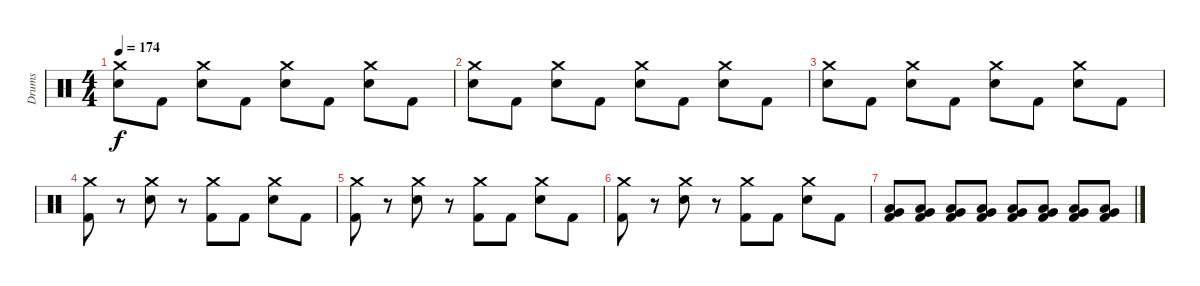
\track ("Drums" "Drums") {instrument percussion}
\staff {score}
\articulation defaults
\ts (4 4)
\tempo 174
\clef neutral
\ks c
("Crash medium (hit)" "Electric Snare (hit)").8{dy f} "Kick (hit) 2".8 ("Crash medium (hit)" "Electric Snare (hit)").8 "Kick (hit) 2".8 ("Crash medium (hit)" "Electric Snare (hit)").8 "Kick (hit) 2".8 ("Crash medium (hit)" "Electric Snare (hit)").8 "Kick (hit) 2".8 |
("Crash medium (hit)" "Electric Snare (hit)").8 "Kick (hit) 2".8 ("Crash medium (hit)" "Electric Snare (hit)").8 "Kick (hit) 2".8 ("Crash medium (hit)" "Electric Snare (hit)").8 "Kick (hit) 2".8 ("Crash medium (hit)" "Electric Snare (hit)").8 "Kick (hit) 2".8 |
("Crash medium (hit)" "Electric Snare (hit)").8 "Kick (hit) 2".8 ("Crash medium (hit)" "Electric Snare (hit)").8 "Kick (hit) 2".8 ("Crash medium (hit)" "Electric Snare (hit)").8 "Kick (hit) 2".8 ("Crash medium (hit)" "Electric Snare (hit)").8 "Kick (hit) 2".8 |
("Crash medium (hit)" "Kick (hit) 2").8 r.8 ("Crash medium (hit)" "Electric Snare (hit)").8 r.8 ("Crash medium (hit)" "Kick (hit) 2").8 "Kick (hit) 2".8 ("Crash medium (hit)" "Electric Snare (hit)").8 "Kick (hit) 2".8 |
("Crash medium (hit)" "Kick (hit) 2").8 r.8 ("Crash medium (hit)" "Electric Snare (hit)").8 r.8 ("Crash medium (hit)" "Kick (hit) 2").8 "Kick (hit) 2".8 ("Crash medium (hit)" "Electric Snare (hit)").8 "Kick (hit) 2".8 |
("Crash medium (hit)" "Kick (hit) 2").8 r.8 ("Crash medium (hit)" "Electric Snare (hit)").8 r.8 ("Crash medium (hit)" "Kick (hit) 2").8 "Kick (hit) 2".8 ("Crash medium (hit)" "Electric Snare (hit)").8 "Kick (hit) 2".8 |
("Low Floor Tom (hit)" "Very Low Tom (hit)" "Kick (hit) 2").8 ("Low Floor Tom (hit)" "Very Low Tom (hit)" "Kick (hit) 2").8 ("Low Floor Tom (hit)" "Very Low Tom (hit)" "Kick (hit) 2").8 ("Low Floor Tom (hit)" "Very Low Tom (hit)" "Kick (hit) 2").8 ("Low Floor Tom (hit)" "Very Low Tom (hit)" "Kick (hit) 2").8 ("Low Floor Tom (hit)" "Very Low Tom (hit)" "Kick (hit) 2").8 ("Low Floor Tom (hit)" "Very Low Tom (hit)" "Kick (hit) 2").8 ("Low Floor Tom (hit)" "Very Low Tom (hit)" "Kick (hit) 2").8
